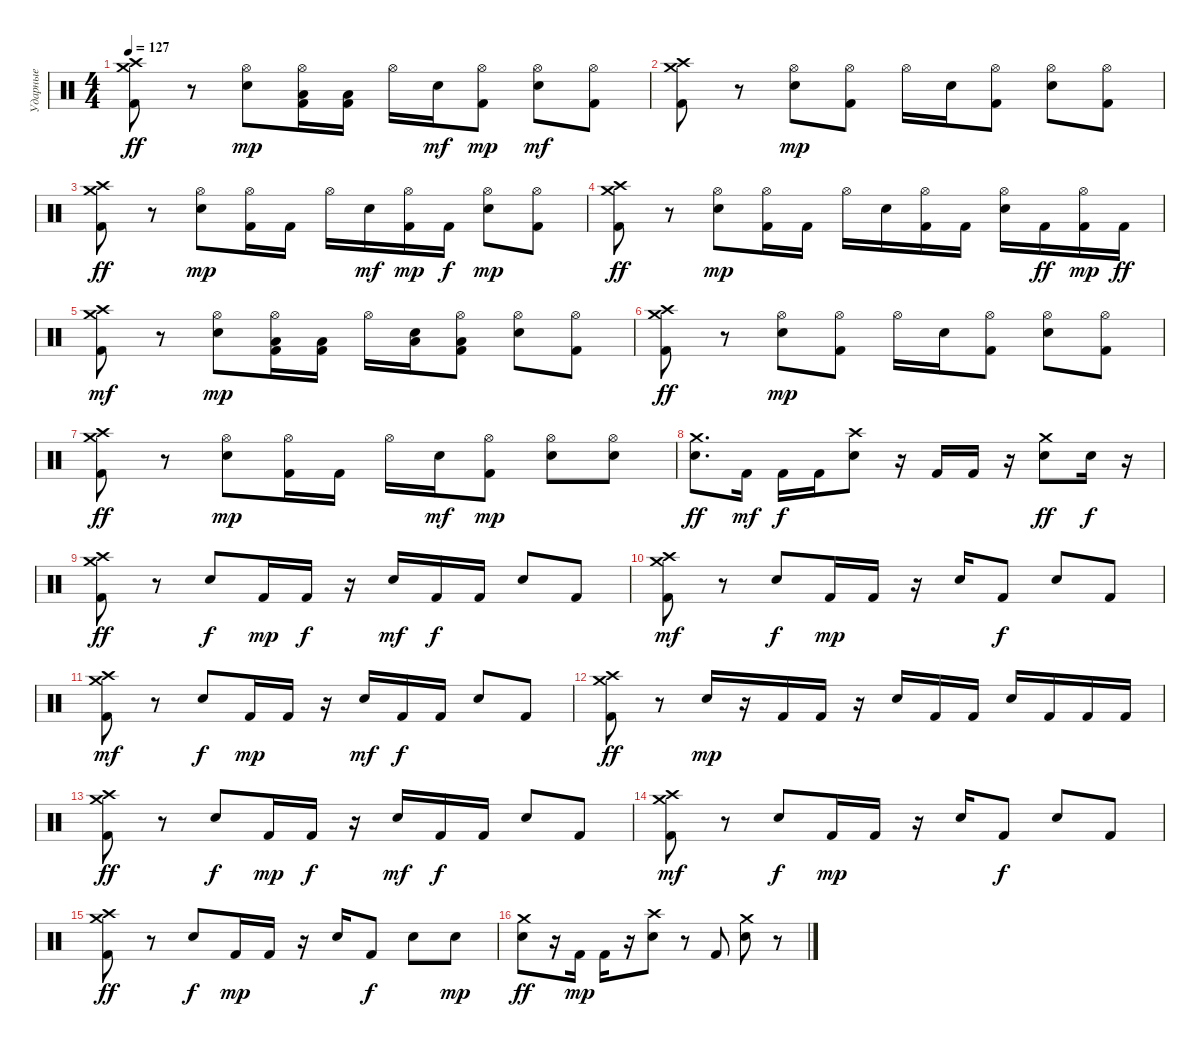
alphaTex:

\track ("Ударные" "Ударные") {instrument percussion}
\staff {score}
\articulation defaults
\ts (4 4)
\tempo 127
\clef neutral
\ks c
("Crash high (hit)" "Crash medium (hit)" "Kick (hit) 2").8{dy ff} r.8 ("Hi-Hat (open)" "Snare (hit) 2").8{dy mp} ("Low Tom (hit)" "Kick (hit) 2" "Hi-Hat (open)").16 ("Low Floor Tom (hit)" "Kick (hit) 2").16 "Hi-Hat (open)".16 "Electric Snare (hit)".16{dy mf} ("Kick (hit) 2" "Hi-Hat (open)").8{dy mp} ("Snare (hit) 2" "Hi-Hat (open)").8{dy mf} ("Hi-Hat (open)" "Kick (hit) 2").8 |
("Kick (hit) 2" "Crash medium (hit)" "Crash high (hit)").8 r.8 ("Snare (hit) 2" "Hi-Hat (open)").8{dy mp} ("Kick (hit) 2" "Hi-Hat (open)").8 "Hi-Hat (open)".16 "Electric Snare (hit)".16 ("Kick (hit) 2" "Hi-Hat (open)").8 ("Hi-Hat (open)" "Snare (hit) 2").8 ("Kick (hit) 2" "Hi-Hat (open)").8 |
("Crash high (hit)" "Crash medium (hit)" "Kick (hit) 2").8{dy ff} r.8 ("Snare (hit) 2" "Hi-Hat (open)").8{dy mp} ("Hi-Hat (open)" "Kick (hit) 2").16 "Kick (hit) 2".16 "Hi-Hat (open)".16 "Electric Snare (hit)".16{dy mf} ("Hi-Hat (open)" "Kick (hit) 2").16{dy mp} "Kick (hit) 2".16{dy f} ("Hi-Hat (open)" "Snare (hit) 2").8{dy mp} ("Kick (hit) 2" "Hi-Hat (open)").8 |
("Crash high (hit)" "Crash medium (hit)" "Kick (hit) 2").8{dy ff} r.8 ("Electric Snare (hit)" "Hi-Hat (open)").8{dy mp} ("Hi-Hat (open)" "Kick (hit) 2").16 "Kick (hit) 2".16 "Hi-Hat (open)".16 "Electric Snare (hit)".16 ("Hi-Hat (open)" "Kick (hit) 2").16 "Kick (hit) 2".16 ("Hi-Hat (open)" "Electric Snare (hit)").16 "Kick (hit) 2".16{dy ff} ("Hi-Hat (open)" "Kick (hit) 2").16{dy mp} "Kick (hit) 2".16{dy ff} |
("Kick (hit) 2" "Crash medium (hit)" "Crash high (hit)").8{dy mf} r.8 ("Hi-Hat (open)" "Snare (hit) 2").8{dy mp} ("Low Tom (hit)" "Kick (hit) 2" "Hi-Hat (open)").16 ("Kick (hit) 2" "Low Floor Tom (hit)").16 "Hi-Hat (open)".16 ("Electric Snare (hit)" "Low Floor Tom (hit)").16 ("Hi-Hat (open)" "Kick (hit) 2" "Low Tom (hit)").8 ("Hi-Hat (open)" "Snare (hit) 2").8 ("Hi-Hat (open)" "Kick (hit) 2").8 |
("Crash high (hit)" "Crash medium (hit)" "Kick (hit) 2").8{dy ff} r.8 ("Snare (hit) 2" "Hi-Hat (open)").8{dy mp} ("Kick (hit) 2" "Hi-Hat (open)").8 "Hi-Hat (open)".16 "Electric Snare (hit)".16 ("Hi-Hat (open)" "Kick (hit) 2").8 ("Snare (hit) 2" "Hi-Hat (open)").8 ("Hi-Hat (open)" "Kick (hit) 2").8 |
("Crash high (hit)" "Crash medium (hit)" "Kick (hit) 2").8{dy ff} r.8 ("Hi-Hat (open)" "Snare (hit) 2").8{dy mp} ("Hi-Hat (open)" "Kick (hit) 2").16 "Kick (hit) 2".16 "Hi-Hat (open)".16 "Electric Snare (hit)".16{dy mf} ("Kick (hit) 2" "Hi-Hat (open)").8{dy mp} ("Snare (hit) 2" "Hi-Hat (open)").8 ("Snare (hit) 2" "Hi-Hat (open)").8 |
("Snare (hit) 2" "Crash medium (hit)").8{d dy ff} "Kick (hit) 2".16{dy mf} "Kick (hit) 2".16{dy f} "Kick (hit) 2".16 ("Crash high (hit)" "Snare (hit) 2").8 r.16 "Kick (hit) 2".16 "Kick (hit) 2".16 r.16 ("Snare (hit) 2" "Crash medium (hit)").8{dy ff} "Snare (hit) 2".16{dy f} r.16 |
("Crash high (hit)" "Crash medium (hit)" "Kick (hit) 2").8{dy ff} r.8 "Snare (hit) 2".8{dy f} "Kick (hit) 2".16{dy mp} "Kick (hit) 2".16{dy f} r.16 "Electric Snare (hit)".16{dy mf} "Kick (hit) 2".16{dy f} "Kick (hit) 2".16 "Snare (hit) 2".8 "Kick (hit) 2".8 |
("Kick (hit) 2" "Crash medium (hit)" "Crash high (hit)").8{dy mf} r.8 "Snare (hit) 2".8{dy f} "Kick (hit) 2".16{dy mp} "Kick (hit) 2".16 r.16 "Electric Snare (hit)".16 "Kick (hit) 2".8{dy f} "Snare (hit) 2".8 "Kick (hit) 2".8 |
("Kick (hit) 2" "Crash medium (hit)" "Crash high (hit)").8{dy mf} r.8 "Snare (hit) 2".8{dy f} "Kick (hit) 2".16{dy mp} "Kick (hit) 2".16 r.16 "Electric Snare (hit)".16{dy mf} "Kick (hit) 2".16{dy f} "Kick (hit) 2".16 "Snare (hit) 2".8 "Kick (hit) 2".8 |
("Crash high (hit)" "Crash medium (hit)" "Kick (hit) 2").8{dy ff} r.8 "Electric Snare (hit)".16{dy mp} r.16 "Kick (hit) 2".16 "Kick (hit) 2".16 r.16 "Electric Snare (hit)".16 "Kick (hit) 2".16 "Kick (hit) 2".16 "Electric Snare (hit)".16 "Kick (hit) 2".16 "Kick (hit) 2".16 "Kick (hit) 2".16 |
("Crash high (hit)" "Crash medium (hit)" "Kick (hit) 2").8{dy ff} r.8 "Snare (hit) 2".8{dy f} "Kick (hit) 2".16{dy mp} "Kick (hit) 2".16{dy f} r.16 "Electric Snare (hit)".16{dy mf} "Kick (hit) 2".16{dy f} "Kick (hit) 2".16 "Snare (hit) 2".8 "Kick (hit) 2".8 |
("Kick (hit) 2" "Crash medium (hit)" "Crash high (hit)").8{dy mf} r.8 "Snare (hit) 2".8{dy f} "Kick (hit) 2".16{dy mp} "Kick (hit) 2".16 r.16 "Electric Snare (hit)".16 "Kick (hit) 2".8{dy f} "Snare (hit) 2".8 "Kick (hit) 2".8 |
("Crash high (hit)" "Crash medium (hit)" "Kick (hit) 2").8{dy ff} r.8 "Snare (hit) 2".8{dy f} "Kick (hit) 2".16{dy mp} "Kick (hit) 2".16 r.16 "Electric Snare (hit)".16 "Kick (hit) 2".8{dy f} "Snare (hit) 2".8 "Snare (hit) 2".8{dy mp} |
("Snare (hit) 2" "Crash medium (hit)").8{dy ff} r.16 "Kick (hit) 2".16{dy mp} "Kick (hit) 2".16 r.16 ("Snare (hit) 2" "Crash high (hit)").8 r.8 "Kick (hit) 2".8 ("Crash medium (hit)" "Snare (hit) 2").8 r.8
